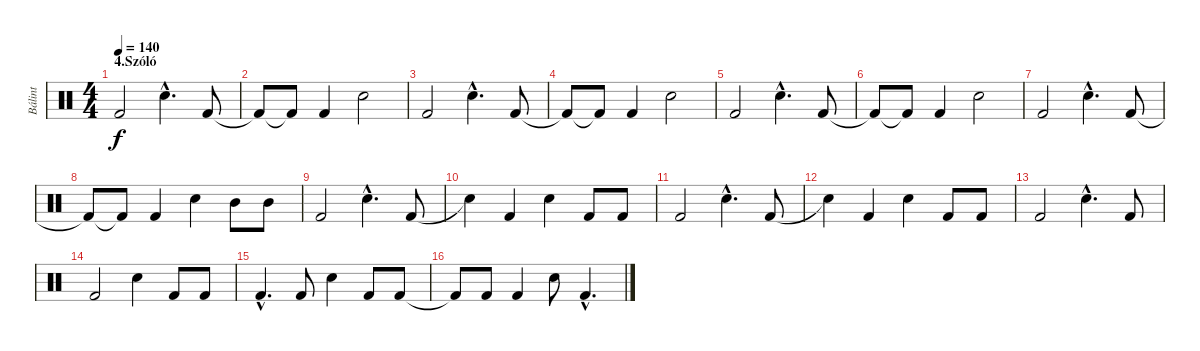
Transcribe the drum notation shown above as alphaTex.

\track ("Bálint" "Bálint") {instrument percussion}
\staff {score}
\articulation defaults
\ts (4 4)
\section ("" "4.Szóló")
\tempo 140
\clef neutral
\ks c "Kick (hit) 2".2{dy f} "Snare (hit) 2"{hac}.4{d} "Kick (hit) 2".8
|
"Kick (hit) 2"{t}.8 "Kick (hit) 2"{t}.8 "Kick (hit) 2".4 "Snare (hit) 2".2 |
"Kick (hit) 2".2 "Snare (hit) 2"{hac}.4{d} "Kick (hit) 2".8 |
"Kick (hit) 2"{t}.8 "Kick (hit) 2"{t}.8 "Kick (hit) 2".4 "Snare (hit) 2".2 |
"Kick (hit) 2".2 "Snare (hit) 2"{hac}.4{d} "Kick (hit) 2".8 |
"Kick (hit) 2"{t}.8 "Kick (hit) 2"{t}.8 "Kick (hit) 2".4 "Snare (hit) 2".2 |
"Kick (hit) 2".2 "Snare (hit) 2"{hac}.4{d} "Kick (hit) 2".8 |
"Kick (hit) 2"{t}.8 "Kick (hit) 2"{t}.8 "Kick (hit) 2".4 "Snare (hit) 2".4 "Mid Tom (hit)".8 "Mid Tom (hit)".8 |
"Kick (hit) 2".2 "Snare (hit) 2"{hac}.4{d} "Kick (hit) 2".8 |
"Snare (hit)"{t}.4 "Kick (hit) 2".4 "Snare (hit) 2".4 "Kick (hit) 2".8 "Kick (hit) 2".8 |
"Kick (hit) 2".2 "Snare (hit) 2"{hac}.4{d} "Kick (hit) 2".8 |
"Snare (hit)"{t}.4 "Kick (hit) 2".4 "Snare (hit) 2".4 "Kick (hit) 2".8 "Kick (hit) 2".8 |
"Kick (hit) 2".2 "Snare (hit) 2"{hac}.4{d} "Kick (hit) 2".8 |
"Kick (hit) 2".2 "Snare (hit) 2".4 "Kick (hit) 2".8 "Kick (hit) 2".8 |
"Kick (hit) 2"{hac}.4{d} "Kick (hit) 2".8 "Snare (hit) 2".4 "Kick (hit) 2".8 "Kick (hit) 2".8 |
"Kick (hit) 2"{t}.8 "Kick (hit) 2".8 "Kick (hit) 2".4 "Snare (hit) 2".8 "Kick (hit) 2"{hac}.4{d}
